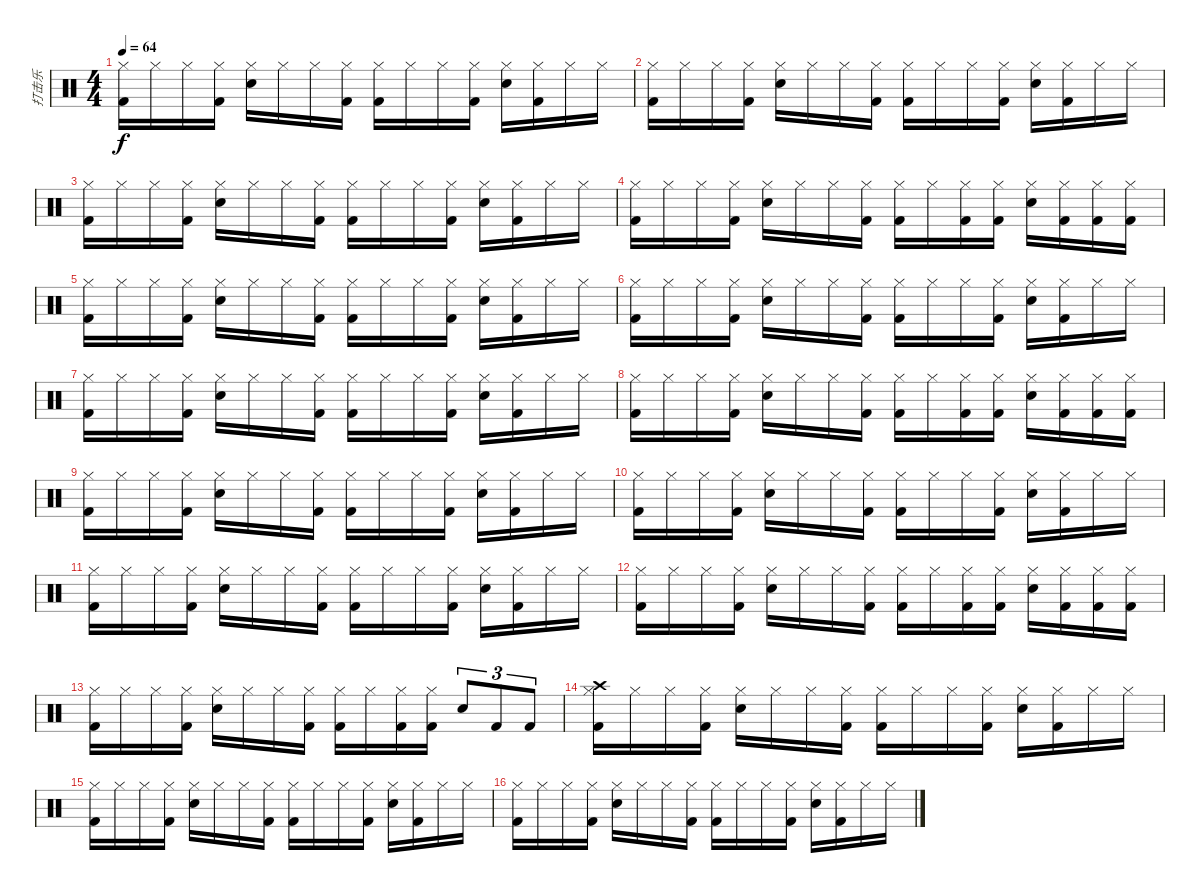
\track ("打击乐" "打击乐") {instrument percussion}
\staff {score}
\articulation defaults
\ts (4 4)
\tempo 64
\clef neutral
\ks c
("Hi-Hat (closed)" "Kick (hit) 2").16{dy f} "Hi-Hat (closed)".16 "Hi-Hat (closed)".16 ("Hi-Hat (closed)" "Kick (hit) 2").16 ("Hi-Hat (closed)" "Snare (hit) 2").16 "Hi-Hat (closed)".16 "Hi-Hat (closed)".16 ("Hi-Hat (closed)" "Kick (hit) 2").16 ("Hi-Hat (closed)" "Kick (hit) 2").16 "Hi-Hat (closed)".16 "Hi-Hat (closed)".16 ("Hi-Hat (closed)" "Kick (hit) 2").16 ("Hi-Hat (closed)" "Snare (hit) 2").16 ("Hi-Hat (closed)" "Kick (hit) 2").16 "Hi-Hat (closed)".16 "Hi-Hat (closed)".16 |
("Hi-Hat (closed)" "Kick (hit) 2").16 "Hi-Hat (closed)".16 "Hi-Hat (closed)".16 ("Hi-Hat (closed)" "Kick (hit) 2").16 ("Hi-Hat (closed)" "Snare (hit) 2").16 "Hi-Hat (closed)".16 "Hi-Hat (closed)".16 ("Hi-Hat (closed)" "Kick (hit) 2").16 ("Hi-Hat (closed)" "Kick (hit) 2").16 "Hi-Hat (closed)".16 "Hi-Hat (closed)".16 ("Hi-Hat (closed)" "Kick (hit) 2").16 ("Hi-Hat (closed)" "Snare (hit) 2").16 ("Hi-Hat (closed)" "Kick (hit) 2").16 "Hi-Hat (closed)".16 "Hi-Hat (closed)".16 |
("Hi-Hat (closed)" "Kick (hit) 2").16 "Hi-Hat (closed)".16 "Hi-Hat (closed)".16 ("Hi-Hat (closed)" "Kick (hit) 2").16 ("Hi-Hat (closed)" "Snare (hit) 2").16 "Hi-Hat (closed)".16 "Hi-Hat (closed)".16 ("Hi-Hat (closed)" "Kick (hit) 2").16 ("Hi-Hat (closed)" "Kick (hit) 2").16 "Hi-Hat (closed)".16 "Hi-Hat (closed)".16 ("Hi-Hat (closed)" "Kick (hit) 2").16 ("Hi-Hat (closed)" "Snare (hit) 2").16 ("Hi-Hat (closed)" "Kick (hit) 2").16 "Hi-Hat (closed)".16 "Hi-Hat (closed)".16 |
("Hi-Hat (closed)" "Kick (hit) 2").16 "Hi-Hat (closed)".16 "Hi-Hat (closed)".16 ("Hi-Hat (closed)" "Kick (hit) 2").16 ("Hi-Hat (closed)" "Snare (hit) 2").16 "Hi-Hat (closed)".16 "Hi-Hat (closed)".16 ("Hi-Hat (closed)" "Kick (hit) 2").16 ("Hi-Hat (closed)" "Kick (hit) 2").16 "Hi-Hat (closed)".16 ("Hi-Hat (closed)" "Kick (hit) 2").16 ("Hi-Hat (closed)" "Kick (hit) 2").16 ("Hi-Hat (closed)" "Snare (hit) 2").16 ("Hi-Hat (closed)" "Kick (hit) 2").16 ("Hi-Hat (closed)" "Kick (hit) 2").16 ("Hi-Hat (closed)" "Kick (hit) 2").16 |
("Hi-Hat (closed)" "Kick (hit) 2").16 "Hi-Hat (closed)".16 "Hi-Hat (closed)".16 ("Hi-Hat (closed)" "Kick (hit) 2").16 ("Hi-Hat (closed)" "Snare (hit) 2").16 "Hi-Hat (closed)".16 "Hi-Hat (closed)".16 ("Hi-Hat (closed)" "Kick (hit) 2").16 ("Hi-Hat (closed)" "Kick (hit) 2").16 "Hi-Hat (closed)".16 "Hi-Hat (closed)".16 ("Hi-Hat (closed)" "Kick (hit) 2").16 ("Hi-Hat (closed)" "Snare (hit) 2").16 ("Hi-Hat (closed)" "Kick (hit) 2").16 "Hi-Hat (closed)".16 "Hi-Hat (closed)".16 |
("Hi-Hat (closed)" "Kick (hit) 2").16 "Hi-Hat (closed)".16 "Hi-Hat (closed)".16 ("Hi-Hat (closed)" "Kick (hit) 2").16 ("Hi-Hat (closed)" "Snare (hit) 2").16 "Hi-Hat (closed)".16 "Hi-Hat (closed)".16 ("Hi-Hat (closed)" "Kick (hit) 2").16 ("Hi-Hat (closed)" "Kick (hit) 2").16 "Hi-Hat (closed)".16 "Hi-Hat (closed)".16 ("Hi-Hat (closed)" "Kick (hit) 2").16 ("Hi-Hat (closed)" "Snare (hit) 2").16 ("Hi-Hat (closed)" "Kick (hit) 2").16 "Hi-Hat (closed)".16 "Hi-Hat (closed)".16 |
("Hi-Hat (closed)" "Kick (hit) 2").16 "Hi-Hat (closed)".16 "Hi-Hat (closed)".16 ("Hi-Hat (closed)" "Kick (hit) 2").16 ("Hi-Hat (closed)" "Snare (hit) 2").16 "Hi-Hat (closed)".16 "Hi-Hat (closed)".16 ("Hi-Hat (closed)" "Kick (hit) 2").16 ("Hi-Hat (closed)" "Kick (hit) 2").16 "Hi-Hat (closed)".16 "Hi-Hat (closed)".16 ("Hi-Hat (closed)" "Kick (hit) 2").16 ("Hi-Hat (closed)" "Snare (hit) 2").16 ("Hi-Hat (closed)" "Kick (hit) 2").16 "Hi-Hat (closed)".16 "Hi-Hat (closed)".16 |
("Hi-Hat (closed)" "Kick (hit) 2").16 "Hi-Hat (closed)".16 "Hi-Hat (closed)".16 ("Hi-Hat (closed)" "Kick (hit) 2").16 ("Hi-Hat (closed)" "Snare (hit) 2").16 "Hi-Hat (closed)".16 "Hi-Hat (closed)".16 ("Hi-Hat (closed)" "Kick (hit) 2").16 ("Hi-Hat (closed)" "Kick (hit) 2").16 "Hi-Hat (closed)".16 ("Hi-Hat (closed)" "Kick (hit) 2").16 ("Hi-Hat (closed)" "Kick (hit) 2").16 ("Hi-Hat (closed)" "Snare (hit) 2").16 ("Hi-Hat (closed)" "Kick (hit) 2").16 ("Hi-Hat (closed)" "Kick (hit) 2").16 ("Hi-Hat (closed)" "Kick (hit) 2").16 |
("Hi-Hat (closed)" "Kick (hit) 2").16 "Hi-Hat (closed)".16 "Hi-Hat (closed)".16 ("Hi-Hat (closed)" "Kick (hit) 2").16 ("Hi-Hat (closed)" "Snare (hit) 2").16 "Hi-Hat (closed)".16 "Hi-Hat (closed)".16 ("Hi-Hat (closed)" "Kick (hit) 2").16 ("Hi-Hat (closed)" "Kick (hit) 2").16 "Hi-Hat (closed)".16 "Hi-Hat (closed)".16 ("Hi-Hat (closed)" "Kick (hit) 2").16 ("Hi-Hat (closed)" "Snare (hit) 2").16 ("Hi-Hat (closed)" "Kick (hit) 2").16 "Hi-Hat (closed)".16 "Hi-Hat (closed)".16 |
("Hi-Hat (closed)" "Kick (hit) 2").16 "Hi-Hat (closed)".16 "Hi-Hat (closed)".16 ("Hi-Hat (closed)" "Kick (hit) 2").16 ("Hi-Hat (closed)" "Snare (hit) 2").16 "Hi-Hat (closed)".16 "Hi-Hat (closed)".16 ("Hi-Hat (closed)" "Kick (hit) 2").16 ("Hi-Hat (closed)" "Kick (hit) 2").16 "Hi-Hat (closed)".16 "Hi-Hat (closed)".16 ("Hi-Hat (closed)" "Kick (hit) 2").16 ("Hi-Hat (closed)" "Snare (hit) 2").16 ("Hi-Hat (closed)" "Kick (hit) 2").16 "Hi-Hat (closed)".16 "Hi-Hat (closed)".16 |
("Hi-Hat (closed)" "Kick (hit) 2").16 "Hi-Hat (closed)".16 "Hi-Hat (closed)".16 ("Hi-Hat (closed)" "Kick (hit) 2").16 ("Hi-Hat (closed)" "Snare (hit) 2").16 "Hi-Hat (closed)".16 "Hi-Hat (closed)".16 ("Hi-Hat (closed)" "Kick (hit) 2").16 ("Hi-Hat (closed)" "Kick (hit) 2").16 "Hi-Hat (closed)".16 "Hi-Hat (closed)".16 ("Hi-Hat (closed)" "Kick (hit) 2").16 ("Hi-Hat (closed)" "Snare (hit) 2").16 ("Hi-Hat (closed)" "Kick (hit) 2").16 "Hi-Hat (closed)".16 "Hi-Hat (closed)".16 |
("Hi-Hat (closed)" "Kick (hit) 2").16 "Hi-Hat (closed)".16 "Hi-Hat (closed)".16 ("Hi-Hat (closed)" "Kick (hit) 2").16 ("Hi-Hat (closed)" "Snare (hit) 2").16 "Hi-Hat (closed)".16 "Hi-Hat (closed)".16 ("Hi-Hat (closed)" "Kick (hit) 2").16 ("Hi-Hat (closed)" "Kick (hit) 2").16 "Hi-Hat (closed)".16 ("Hi-Hat (closed)" "Kick (hit) 2").16 ("Hi-Hat (closed)" "Kick (hit) 2").16 ("Hi-Hat (closed)" "Snare (hit) 2").16 ("Hi-Hat (closed)" "Kick (hit) 2").16 ("Hi-Hat (closed)" "Kick (hit) 2").16 ("Hi-Hat (closed)" "Kick (hit) 2").16 |
("Hi-Hat (closed)" "Kick (hit) 2").16 "Hi-Hat (closed)".16 "Hi-Hat (closed)".16 ("Hi-Hat (closed)" "Kick (hit) 2").16 ("Hi-Hat (closed)" "Snare (hit) 2").16 "Hi-Hat (closed)".16 "Hi-Hat (closed)".16 ("Hi-Hat (closed)" "Kick (hit) 2").16 ("Hi-Hat (closed)" "Kick (hit) 2").16 "Hi-Hat (closed)".16 ("Hi-Hat (closed)" "Kick (hit) 2").16 ("Hi-Hat (closed)" "Kick (hit) 2").16 "Snare (hit) 2".8{tu (3 2)} "Kick (hit) 2".8{tu (3 2)} "Kick (hit) 2".8{tu (3 2)} |
("Crash high (hit)" "Hi-Hat (closed)" "Kick (hit) 2").16 "Hi-Hat (closed)".16 "Hi-Hat (closed)".16 ("Hi-Hat (closed)" "Kick (hit) 2").16 ("Hi-Hat (closed)" "Snare (hit) 2").16 "Hi-Hat (closed)".16 "Hi-Hat (closed)".16 ("Hi-Hat (closed)" "Kick (hit) 2").16 ("Hi-Hat (closed)" "Kick (hit) 2").16 "Hi-Hat (closed)".16 "Hi-Hat (closed)".16 ("Hi-Hat (closed)" "Kick (hit) 2").16 ("Hi-Hat (closed)" "Snare (hit) 2").16 ("Hi-Hat (closed)" "Kick (hit) 2").16 "Hi-Hat (closed)".16 "Hi-Hat (closed)".16 |
("Hi-Hat (closed)" "Kick (hit) 2").16 "Hi-Hat (closed)".16 "Hi-Hat (closed)".16 ("Hi-Hat (closed)" "Kick (hit) 2").16 ("Hi-Hat (closed)" "Snare (hit) 2").16 "Hi-Hat (closed)".16 "Hi-Hat (closed)".16 ("Hi-Hat (closed)" "Kick (hit) 2").16 ("Hi-Hat (closed)" "Kick (hit) 2").16 "Hi-Hat (closed)".16 "Hi-Hat (closed)".16 ("Hi-Hat (closed)" "Kick (hit) 2").16 ("Hi-Hat (closed)" "Snare (hit) 2").16 ("Hi-Hat (closed)" "Kick (hit) 2").16 "Hi-Hat (closed)".16 "Hi-Hat (closed)".16 |
("Hi-Hat (closed)" "Kick (hit) 2").16 "Hi-Hat (closed)".16 "Hi-Hat (closed)".16 ("Hi-Hat (closed)" "Kick (hit) 2").16 ("Hi-Hat (closed)" "Snare (hit) 2").16 "Hi-Hat (closed)".16 "Hi-Hat (closed)".16 ("Hi-Hat (closed)" "Kick (hit) 2").16 ("Hi-Hat (closed)" "Kick (hit) 2").16 "Hi-Hat (closed)".16 "Hi-Hat (closed)".16 ("Hi-Hat (closed)" "Kick (hit) 2").16 ("Hi-Hat (closed)" "Snare (hit) 2").16 ("Hi-Hat (closed)" "Kick (hit) 2").16 "Hi-Hat (closed)".16 "Hi-Hat (closed)".16
